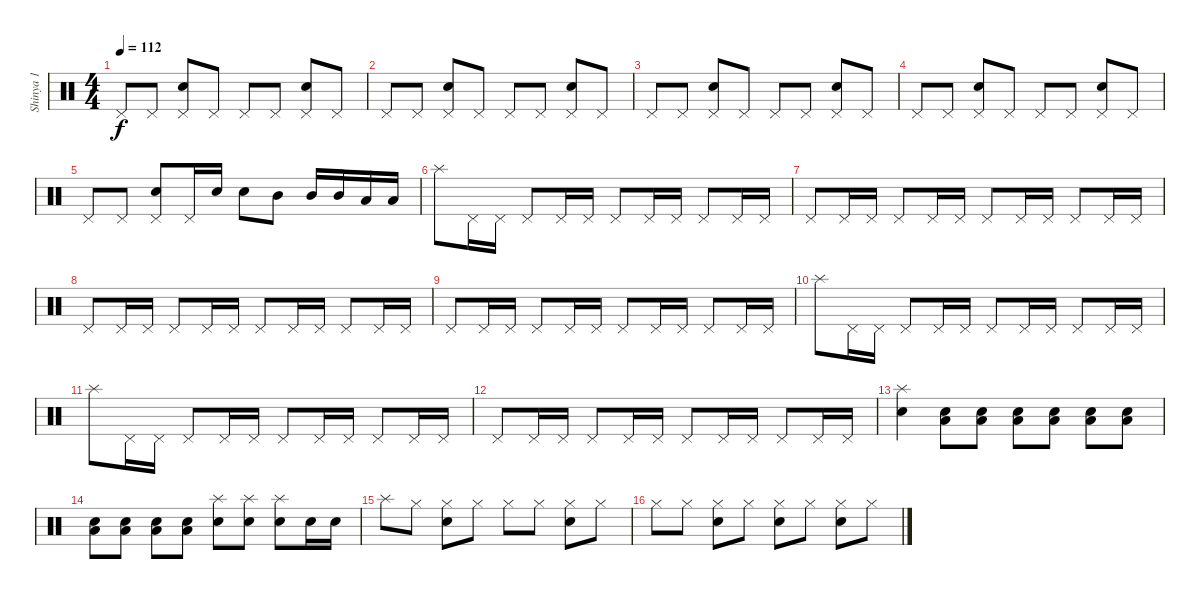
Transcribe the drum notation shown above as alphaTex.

\track ("Shinya 1" "Shinya 1") {instrument percussion}
\staff {score}
\articulation defaults
\ts (4 4)
\tempo 112
\clef neutral
\ks c "Pedal Hi-Hat (hit)".8{dy f} "Pedal Hi-Hat (hit)".8
("Pedal Hi-Hat (hit)" "Snare (hit) 2").8 "Pedal Hi-Hat (hit)".8 "Pedal Hi-Hat (hit)".8 "Pedal Hi-Hat (hit)".8 ("Pedal Hi-Hat (hit)" "Snare (hit) 2").8 "Pedal Hi-Hat (hit)".8 |
"Pedal Hi-Hat (hit)".8 "Pedal Hi-Hat (hit)".8 ("Pedal Hi-Hat (hit)" "Snare (hit) 2").8 "Pedal Hi-Hat (hit)".8 "Pedal Hi-Hat (hit)".8 "Pedal Hi-Hat (hit)".8 ("Pedal Hi-Hat (hit)" "Snare (hit) 2").8 "Pedal Hi-Hat (hit)".8 |
"Pedal Hi-Hat (hit)".8 "Pedal Hi-Hat (hit)".8 ("Pedal Hi-Hat (hit)" "Snare (hit) 2").8 "Pedal Hi-Hat (hit)".8 "Pedal Hi-Hat (hit)".8 "Pedal Hi-Hat (hit)".8 ("Pedal Hi-Hat (hit)" "Snare (hit) 2").8 "Pedal Hi-Hat (hit)".8 |
"Pedal Hi-Hat (hit)".8 "Pedal Hi-Hat (hit)".8 ("Pedal Hi-Hat (hit)" "Snare (hit) 2").8 "Pedal Hi-Hat (hit)".8 "Pedal Hi-Hat (hit)".8 "Pedal Hi-Hat (hit)".8 ("Pedal Hi-Hat (hit)" "Snare (hit) 2").8 "Pedal Hi-Hat (hit)".8 |
"Pedal Hi-Hat (hit)".8 "Pedal Hi-Hat (hit)".8 ("Pedal Hi-Hat (hit)" "Snare (hit) 2").8 "Pedal Hi-Hat (hit)".16 "Snare (hit) 2".16 "Snare (hit) 2".8 "Mid Tom (hit)".8 "Mid Tom (hit)".16 "Mid Tom (hit)".16 "Low Floor Tom (hit)".16 "Low Floor Tom (hit)".16 |
"Splash (hit)".8 "Pedal Hi-Hat (hit)".16 "Pedal Hi-Hat (hit)".16 "Pedal Hi-Hat (hit)".8 "Pedal Hi-Hat (hit)".16 "Pedal Hi-Hat (hit)".16 "Pedal Hi-Hat (hit)".8 "Pedal Hi-Hat (hit)".16 "Pedal Hi-Hat (hit)".16 "Pedal Hi-Hat (hit)".8 "Pedal Hi-Hat (hit)".16 "Pedal Hi-Hat (hit)".16 |
"Pedal Hi-Hat (hit)".8 "Pedal Hi-Hat (hit)".16 "Pedal Hi-Hat (hit)".16 "Pedal Hi-Hat (hit)".8 "Pedal Hi-Hat (hit)".16 "Pedal Hi-Hat (hit)".16 "Pedal Hi-Hat (hit)".8 "Pedal Hi-Hat (hit)".16 "Pedal Hi-Hat (hit)".16 "Pedal Hi-Hat (hit)".8 "Pedal Hi-Hat (hit)".16 "Pedal Hi-Hat (hit)".16 |
"Pedal Hi-Hat (hit)".8 "Pedal Hi-Hat (hit)".16 "Pedal Hi-Hat (hit)".16 "Pedal Hi-Hat (hit)".8 "Pedal Hi-Hat (hit)".16 "Pedal Hi-Hat (hit)".16 "Pedal Hi-Hat (hit)".8 "Pedal Hi-Hat (hit)".16 "Pedal Hi-Hat (hit)".16 "Pedal Hi-Hat (hit)".8 "Pedal Hi-Hat (hit)".16 "Pedal Hi-Hat (hit)".16 |
"Pedal Hi-Hat (hit)".8 "Pedal Hi-Hat (hit)".16 "Pedal Hi-Hat (hit)".16 "Pedal Hi-Hat (hit)".8 "Pedal Hi-Hat (hit)".16 "Pedal Hi-Hat (hit)".16 "Pedal Hi-Hat (hit)".8 "Pedal Hi-Hat (hit)".16 "Pedal Hi-Hat (hit)".16 "Pedal Hi-Hat (hit)".8 "Pedal Hi-Hat (hit)".16 "Pedal Hi-Hat (hit)".16 |
"Splash (hit)".8 "Pedal Hi-Hat (hit)".16 "Pedal Hi-Hat (hit)".16 "Pedal Hi-Hat (hit)".8 "Pedal Hi-Hat (hit)".16 "Pedal Hi-Hat (hit)".16 "Pedal Hi-Hat (hit)".8 "Pedal Hi-Hat (hit)".16 "Pedal Hi-Hat (hit)".16 "Pedal Hi-Hat (hit)".8 "Pedal Hi-Hat (hit)".16 "Pedal Hi-Hat (hit)".16 |
"Splash (hit)".8 "Pedal Hi-Hat (hit)".16 "Pedal Hi-Hat (hit)".16 "Pedal Hi-Hat (hit)".8 "Pedal Hi-Hat (hit)".16 "Pedal Hi-Hat (hit)".16 "Pedal Hi-Hat (hit)".8 "Pedal Hi-Hat (hit)".16 "Pedal Hi-Hat (hit)".16 "Pedal Hi-Hat (hit)".8 "Pedal Hi-Hat (hit)".16 "Pedal Hi-Hat (hit)".16 |
"Pedal Hi-Hat (hit)".8 "Pedal Hi-Hat (hit)".16 "Pedal Hi-Hat (hit)".16 "Pedal Hi-Hat (hit)".8 "Pedal Hi-Hat (hit)".16 "Pedal Hi-Hat (hit)".16 "Pedal Hi-Hat (hit)".8 "Pedal Hi-Hat (hit)".16 "Pedal Hi-Hat (hit)".16 "Pedal Hi-Hat (hit)".8 "Pedal Hi-Hat (hit)".16 "Pedal Hi-Hat (hit)".16 |
("Splash (hit)" "Snare (hit) 2").4 ("Snare (hit) 2" "Low Floor Tom (hit)").8 ("Snare (hit) 2" "Low Floor Tom (hit)").8 ("Snare (hit) 2" "Low Floor Tom (hit)").8 ("Snare (hit) 2" "Low Floor Tom (hit)").8 ("Snare (hit) 2" "Low Floor Tom (hit)").8 ("Snare (hit) 2" "Low Floor Tom (hit)").8 |
("Snare (hit) 2" "Low Floor Tom (hit)").8 ("Snare (hit) 2" "Low Floor Tom (hit)").8 ("Snare (hit) 2" "Low Floor Tom (hit)").8 ("Snare (hit) 2" "Low Floor Tom (hit)").8 ("Splash (hit)" "Snare (hit) 2").8 ("Splash (hit)" "Snare (hit) 2").8 ("Splash (hit)" "Snare (hit) 2").8 "Snare (hit) 2".16 "Snare (hit) 2".16 |
"Splash (hit)".8 "Hi-Hat (closed)".8 ("Hi-Hat (closed)" "Snare (hit) 2").8 "Hi-Hat (closed)".8 "Hi-Hat (closed)".8 "Hi-Hat (closed)".8 ("Hi-Hat (closed)" "Snare (hit) 2").8 "Hi-Hat (closed)".8 |
"Hi-Hat (closed)".8 "Hi-Hat (closed)".8 ("Hi-Hat (closed)" "Snare (hit) 2").8 "Hi-Hat (closed)".8 ("Hi-Hat (closed)" "Snare (hit) 2").8 "Hi-Hat (closed)".8 ("Hi-Hat (closed)" "Snare (hit) 2").8 "Hi-Hat (closed)".8
